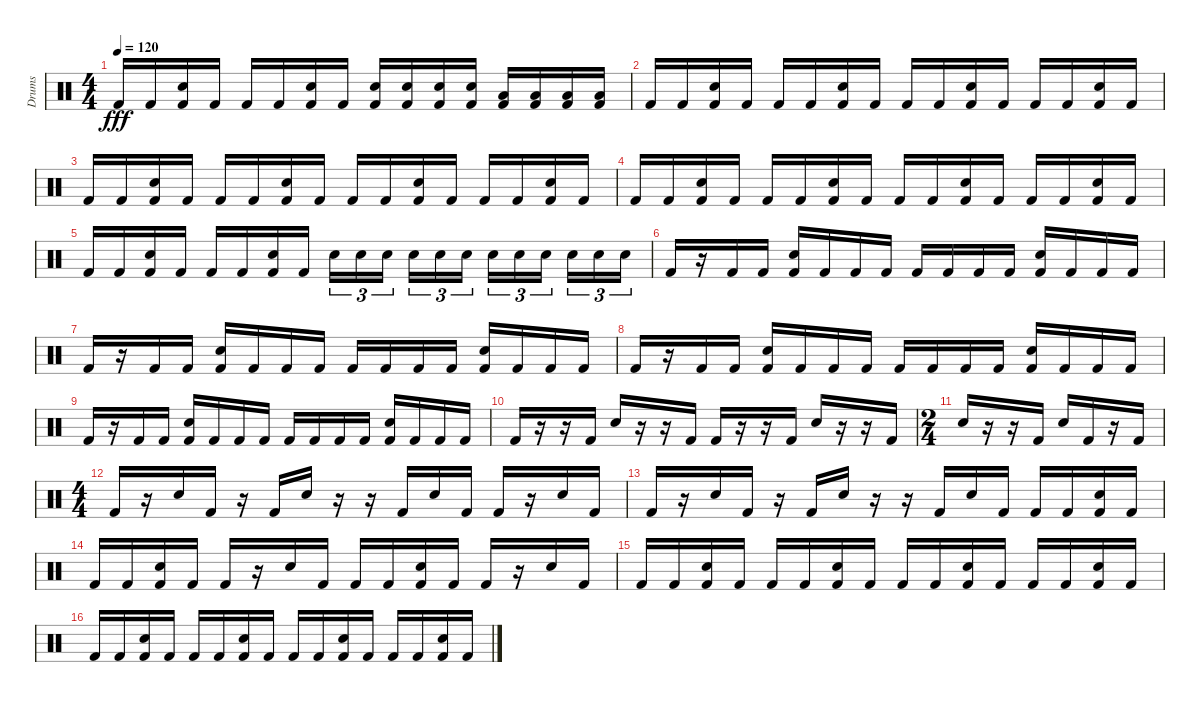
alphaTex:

\track ("Drums" "Drums") {instrument percussion}
\staff {score}
\articulation defaults
\ts (4 4)
\tempo 120
\clef neutral
\ks c "Kick (hit) 2".16{dy fff} "Kick (hit) 2".16
("Snare (hit) 2" "Kick (hit) 2").16 "Kick (hit) 2".16 "Kick (hit) 2".16 "Kick (hit) 2".16 ("Snare (hit) 2" "Kick (hit) 2").16 "Kick (hit) 2".16 ("Snare (hit) 2" "Kick (hit) 2").16 ("Snare (hit) 2" "Kick (hit) 2").16 ("Snare (hit) 2" "Kick (hit) 2").16 ("Snare (hit) 2" "Kick (hit) 2").16 ("Low Floor Tom (hit)" "Kick (hit) 2").16 ("Low Floor Tom (hit)" "Kick (hit) 2").16 ("Low Floor Tom (hit)" "Kick (hit) 2").16 ("Low Floor Tom (hit)" "Kick (hit) 2").16 |
"Kick (hit) 2".16 "Kick (hit) 2".16 ("Snare (hit) 2" "Kick (hit) 2").16 "Kick (hit) 2".16 "Kick (hit) 2".16 "Kick (hit) 2".16 ("Snare (hit) 2" "Kick (hit) 2").16 "Kick (hit) 2".16 "Kick (hit) 2".16 "Kick (hit) 2".16 ("Snare (hit) 2" "Kick (hit) 2").16 "Kick (hit) 2".16 "Kick (hit) 2".16 "Kick (hit) 2".16 ("Snare (hit) 2" "Kick (hit) 2").16 "Kick (hit) 2".16 |
"Kick (hit) 2".16 "Kick (hit) 2".16 ("Snare (hit) 2" "Kick (hit) 2").16 "Kick (hit) 2".16 "Kick (hit) 2".16 "Kick (hit) 2".16 ("Snare (hit) 2" "Kick (hit) 2").16 "Kick (hit) 2".16 "Kick (hit) 2".16 "Kick (hit) 2".16 ("Snare (hit) 2" "Kick (hit) 2").16 "Kick (hit) 2".16 "Kick (hit) 2".16 "Kick (hit) 2".16 ("Snare (hit) 2" "Kick (hit) 2").16 "Kick (hit) 2".16 |
"Kick (hit) 2".16 "Kick (hit) 2".16 ("Snare (hit) 2" "Kick (hit) 2").16 "Kick (hit) 2".16 "Kick (hit) 2".16 "Kick (hit) 2".16 ("Snare (hit) 2" "Kick (hit) 2").16 "Kick (hit) 2".16 "Kick (hit) 2".16 "Kick (hit) 2".16 ("Snare (hit) 2" "Kick (hit) 2").16 "Kick (hit) 2".16 "Kick (hit) 2".16 "Kick (hit) 2".16 ("Snare (hit) 2" "Kick (hit) 2").16 "Kick (hit) 2".16 |
"Kick (hit) 2".16 "Kick (hit) 2".16 ("Snare (hit) 2" "Kick (hit) 2").16 "Kick (hit) 2".16 "Kick (hit) 2".16 "Kick (hit) 2".16 ("Snare (hit) 2" "Kick (hit) 2").16 "Kick (hit) 2".16 "Snare (hit) 2".16{tu (3 2)} "Snare (hit) 2".16{tu (3 2)} "Snare (hit) 2".16{tu (3 2)} "Snare (hit) 2".16{tu (3 2)} "Snare (hit) 2".16{tu (3 2)} "Snare (hit) 2".16{tu (3 2)} "Snare (hit) 2".16{tu (3 2)} "Snare (hit) 2".16{tu (3 2)} "Snare (hit) 2".16{tu (3 2)} "Snare (hit) 2".16{tu (3 2)} "Snare (hit) 2".16{tu (3 2)} "Snare (hit) 2".16{tu (3 2)} |
"Kick (hit) 2".16 r.16 "Kick (hit) 2".16 "Kick (hit) 2".16 ("Snare (hit) 2" "Kick (hit) 2").16 "Kick (hit) 2".16 "Kick (hit) 2".16 "Kick (hit) 2".16 "Kick (hit) 2".16 "Kick (hit) 2".16 "Kick (hit) 2".16 "Kick (hit) 2".16 ("Snare (hit) 2" "Kick (hit) 2").16 "Kick (hit) 2".16 "Kick (hit) 2".16 "Kick (hit) 2".16 |
"Kick (hit) 2".16 r.16 "Kick (hit) 2".16 "Kick (hit) 2".16 ("Snare (hit) 2" "Kick (hit) 2").16 "Kick (hit) 2".16 "Kick (hit) 2".16 "Kick (hit) 2".16 "Kick (hit) 2".16 "Kick (hit) 2".16 "Kick (hit) 2".16 "Kick (hit) 2".16 ("Snare (hit) 2" "Kick (hit) 2").16 "Kick (hit) 2".16 "Kick (hit) 2".16 "Kick (hit) 2".16 |
"Kick (hit) 2".16 r.16 "Kick (hit) 2".16 "Kick (hit) 2".16 ("Snare (hit) 2" "Kick (hit) 2").16 "Kick (hit) 2".16 "Kick (hit) 2".16 "Kick (hit) 2".16 "Kick (hit) 2".16 "Kick (hit) 2".16 "Kick (hit) 2".16 "Kick (hit) 2".16 ("Snare (hit) 2" "Kick (hit) 2").16 "Kick (hit) 2".16 "Kick (hit) 2".16 "Kick (hit) 2".16 |
"Kick (hit) 2".16 r.16 "Kick (hit) 2".16 "Kick (hit) 2".16 ("Snare (hit) 2" "Kick (hit) 2").16 "Kick (hit) 2".16 "Kick (hit) 2".16 "Kick (hit) 2".16 "Kick (hit) 2".16 "Kick (hit) 2".16 "Kick (hit) 2".16 "Kick (hit) 2".16 ("Snare (hit) 2" "Kick (hit) 2").16 "Kick (hit) 2".16 "Kick (hit) 2".16 "Kick (hit) 2".16 |
"Kick (hit) 2".16 r.16 r.16 "Kick (hit) 2".16 "Snare (hit) 2".16 r.16 r.16 "Kick (hit) 2".16 "Kick (hit) 2".16 r.16 r.16 "Kick (hit) 2".16 "Snare (hit) 2".16 r.16 r.16 "Kick (hit) 2".16 |
\ts (2 4)
"Snare (hit) 2".16 r.16 r.16 "Kick (hit) 2".16 "Snare (hit) 2".16 "Kick (hit) 2".16 r.16 "Kick (hit) 2".16 |
\ts (4 4)
"Kick (hit) 2".16 r.16 "Snare (hit) 2".16 "Kick (hit) 2".16 r.16 "Kick (hit) 2".16 "Snare (hit) 2".16 r.16 r.16 "Kick (hit) 2".16 "Snare (hit) 2".16 "Kick (hit) 2".16 "Kick (hit) 2".16 r.16 "Snare (hit) 2".16 "Kick (hit) 2".16 |
"Kick (hit) 2".16 r.16 "Snare (hit) 2".16 "Kick (hit) 2".16 r.16 "Kick (hit) 2".16 "Snare (hit) 2".16 r.16 r.16 "Kick (hit) 2".16 "Snare (hit) 2".16 "Kick (hit) 2".16 "Kick (hit) 2".16 "Kick (hit) 2".16 ("Snare (hit) 2" "Kick (hit) 2").16 "Kick (hit) 2".16 |
"Kick (hit) 2".16 "Kick (hit) 2".16 ("Snare (hit) 2" "Kick (hit) 2").16 "Kick (hit) 2".16 "Kick (hit) 2".16 r.16 "Snare (hit) 2".16 "Kick (hit) 2".16 "Kick (hit) 2".16 "Kick (hit) 2".16 ("Snare (hit) 2" "Kick (hit) 2").16 "Kick (hit) 2".16 "Kick (hit) 2".16 r.16 "Snare (hit) 2".16 "Kick (hit) 2".16 |
"Kick (hit) 2".16 "Kick (hit) 2".16 ("Snare (hit) 2" "Kick (hit) 2").16 "Kick (hit) 2".16 "Kick (hit) 2".16 "Kick (hit) 2".16 ("Snare (hit) 2" "Kick (hit) 2").16 "Kick (hit) 2".16 "Kick (hit) 2".16 "Kick (hit) 2".16 ("Snare (hit) 2" "Kick (hit) 2").16 "Kick (hit) 2".16 "Kick (hit) 2".16 "Kick (hit) 2".16 ("Snare (hit) 2" "Kick (hit) 2").16 "Kick (hit) 2".16 |
"Kick (hit) 2".16 "Kick (hit) 2".16 ("Snare (hit) 2" "Kick (hit) 2").16 "Kick (hit) 2".16 "Kick (hit) 2".16 "Kick (hit) 2".16 ("Snare (hit) 2" "Kick (hit) 2").16 "Kick (hit) 2".16 "Kick (hit) 2".16 "Kick (hit) 2".16 ("Snare (hit) 2" "Kick (hit) 2").16 "Kick (hit) 2".16 "Kick (hit) 2".16 "Kick (hit) 2".16 ("Snare (hit) 2" "Kick (hit) 2").16 "Kick (hit) 2".16
